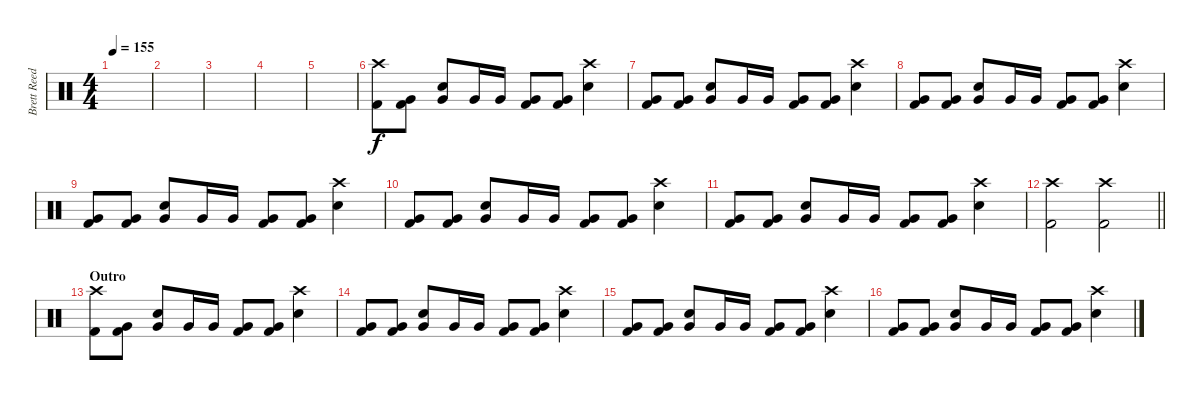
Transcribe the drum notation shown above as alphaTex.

\track ("Brett Reed" "Brett Reed") {instrument percussion}
\staff {score}
\articulation defaults
\ts (4 4)
\tempo 155
\clef neutral
\ks c
|
|
|
|
|
("Crash high (hit)" "Kick (hit) 2").8 ("Very Low Tom (hit)" "Kick (hit) 2").8 ("Very Low Tom (hit)" "Electric Snare (hit)").8 "Very Low Tom (hit)".16 "Very Low Tom (hit)".16 ("Very Low Tom (hit)" "Kick (hit) 2").8 ("Very Low Tom (hit)" "Kick (hit) 2").8 ("Crash high (hit)" "Electric Snare (hit)").4 |
("Very Low Tom (hit)" "Kick (hit) 2").8 ("Very Low Tom (hit)" "Kick (hit) 2").8 ("Very Low Tom (hit)" "Electric Snare (hit)").8 "Very Low Tom (hit)".16 "Very Low Tom (hit)".16 ("Very Low Tom (hit)" "Kick (hit) 2").8 ("Very Low Tom (hit)" "Kick (hit) 2").8 ("Crash high (hit)" "Electric Snare (hit)").4 |
("Very Low Tom (hit)" "Kick (hit) 2").8 ("Very Low Tom (hit)" "Kick (hit) 2").8 ("Very Low Tom (hit)" "Electric Snare (hit)").8 "Very Low Tom (hit)".16 "Very Low Tom (hit)".16 ("Very Low Tom (hit)" "Kick (hit) 2").8 ("Very Low Tom (hit)" "Kick (hit) 2").8 ("Crash high (hit)" "Electric Snare (hit)").4 |
("Very Low Tom (hit)" "Kick (hit) 2").8 ("Very Low Tom (hit)" "Kick (hit) 2").8 ("Very Low Tom (hit)" "Electric Snare (hit)").8 "Very Low Tom (hit)".16 "Very Low Tom (hit)".16 ("Very Low Tom (hit)" "Kick (hit) 2").8 ("Very Low Tom (hit)" "Kick (hit) 2").8 ("Crash high (hit)" "Electric Snare (hit)").4 |
("Very Low Tom (hit)" "Kick (hit) 2").8 ("Very Low Tom (hit)" "Kick (hit) 2").8 ("Very Low Tom (hit)" "Electric Snare (hit)").8 "Very Low Tom (hit)".16 "Very Low Tom (hit)".16 ("Very Low Tom (hit)" "Kick (hit) 2").8 ("Very Low Tom (hit)" "Kick (hit) 2").8 ("Crash high (hit)" "Electric Snare (hit)").4 |
("Very Low Tom (hit)" "Kick (hit) 2").8 ("Very Low Tom (hit)" "Kick (hit) 2").8 ("Very Low Tom (hit)" "Electric Snare (hit)").8 "Very Low Tom (hit)".16 "Very Low Tom (hit)".16 ("Very Low Tom (hit)" "Kick (hit) 2").8 ("Very Low Tom (hit)" "Kick (hit) 2").8 ("Crash high (hit)" "Electric Snare (hit)").4 |
\barLineRight lightlight
("Crash high (hit)" "Kick (hit) 2").2 ("Crash high (hit)" "Kick (hit) 2").2 |
\section ("" "Outro")
("Crash high (hit)" "Kick (hit) 2").8 ("Very Low Tom (hit)" "Kick (hit) 2").8 ("Very Low Tom (hit)" "Electric Snare (hit)").8 "Very Low Tom (hit)".16 "Very Low Tom (hit)".16 ("Very Low Tom (hit)" "Kick (hit) 2").8 ("Very Low Tom (hit)" "Kick (hit) 2").8 ("Crash high (hit)" "Electric Snare (hit)").4 |
("Very Low Tom (hit)" "Kick (hit) 2").8 ("Very Low Tom (hit)" "Kick (hit) 2").8 ("Very Low Tom (hit)" "Electric Snare (hit)").8 "Very Low Tom (hit)".16 "Very Low Tom (hit)".16 ("Very Low Tom (hit)" "Kick (hit) 2").8 ("Very Low Tom (hit)" "Kick (hit) 2").8 ("Crash high (hit)" "Electric Snare (hit)").4 |
("Very Low Tom (hit)" "Kick (hit) 2").8 ("Very Low Tom (hit)" "Kick (hit) 2").8 ("Very Low Tom (hit)" "Electric Snare (hit)").8 "Very Low Tom (hit)".16 "Very Low Tom (hit)".16 ("Very Low Tom (hit)" "Kick (hit) 2").8 ("Very Low Tom (hit)" "Kick (hit) 2").8 ("Crash high (hit)" "Electric Snare (hit)").4 |
("Very Low Tom (hit)" "Kick (hit) 2").8 ("Very Low Tom (hit)" "Kick (hit) 2").8 ("Very Low Tom (hit)" "Electric Snare (hit)").8 "Very Low Tom (hit)".16 "Very Low Tom (hit)".16 ("Very Low Tom (hit)" "Kick (hit) 2").8 ("Very Low Tom (hit)" "Kick (hit) 2").8 ("Crash high (hit)" "Electric Snare (hit)").4
